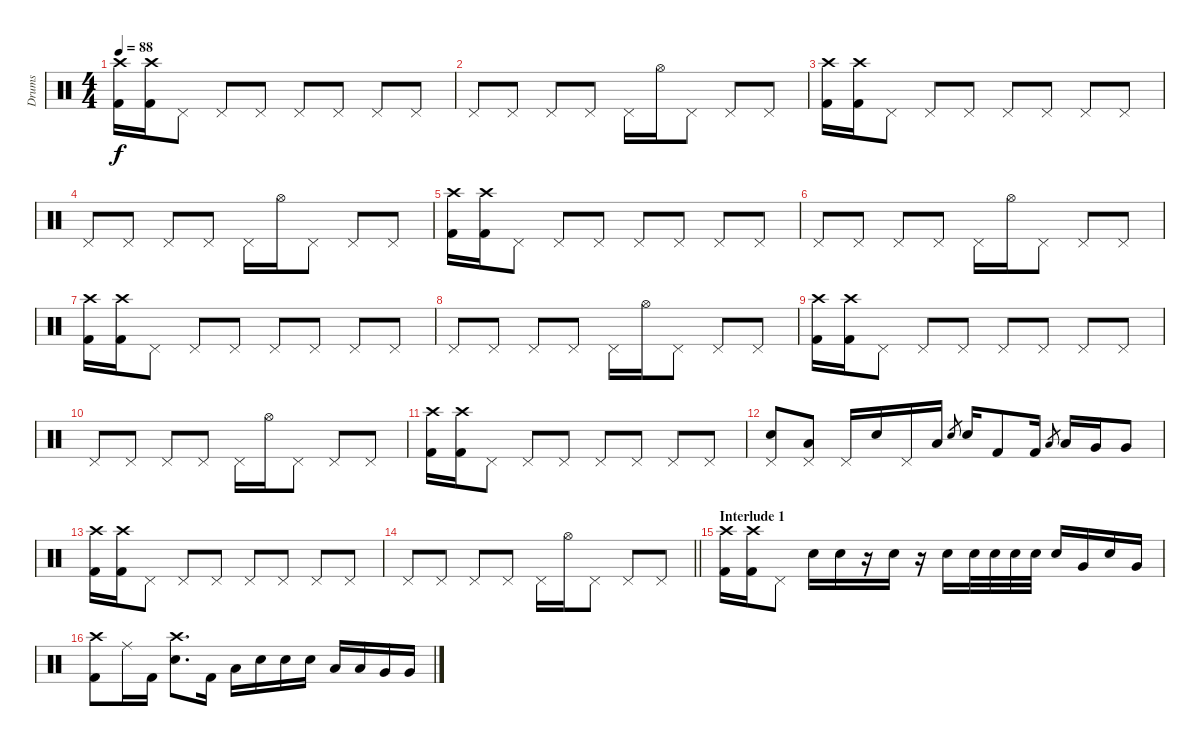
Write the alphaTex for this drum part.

\track ("Drums" "Drums") {instrument percussion}
\staff {score}
\articulation defaults
\ts (4 4)
\tempo 88
\clef neutral
\ks c
("Crash high (hit)" "Kick (hit) 2").16{dy f} ("Crash high (hit)" "Kick (hit) 2").16 "Pedal Hi-Hat (hit)".8 "Pedal Hi-Hat (hit)".8 "Pedal Hi-Hat (hit)".8 "Pedal Hi-Hat (hit)".8 "Pedal Hi-Hat (hit)".8 "Pedal Hi-Hat (hit)".8 "Pedal Hi-Hat (hit)".8 |
"Pedal Hi-Hat (hit)".8 "Pedal Hi-Hat (hit)".8 "Pedal Hi-Hat (hit)".8 "Pedal Hi-Hat (hit)".8 "Pedal Hi-Hat (hit)".16 "Hi-Hat (open)".16 "Pedal Hi-Hat (hit)".8 "Pedal Hi-Hat (hit)".8 "Pedal Hi-Hat (hit)".8 |
("Crash high (hit)" "Kick (hit) 2").16 ("Crash high (hit)" "Kick (hit) 2").16 "Pedal Hi-Hat (hit)".8 "Pedal Hi-Hat (hit)".8 "Pedal Hi-Hat (hit)".8 "Pedal Hi-Hat (hit)".8 "Pedal Hi-Hat (hit)".8 "Pedal Hi-Hat (hit)".8 "Pedal Hi-Hat (hit)".8 |
"Pedal Hi-Hat (hit)".8 "Pedal Hi-Hat (hit)".8 "Pedal Hi-Hat (hit)".8 "Pedal Hi-Hat (hit)".8 "Pedal Hi-Hat (hit)".16 "Hi-Hat (open)".16 "Pedal Hi-Hat (hit)".8 "Pedal Hi-Hat (hit)".8 "Pedal Hi-Hat (hit)".8 |
("Crash high (hit)" "Kick (hit) 2").16 ("Crash high (hit)" "Kick (hit) 2").16 "Pedal Hi-Hat (hit)".8 "Pedal Hi-Hat (hit)".8 "Pedal Hi-Hat (hit)".8 "Pedal Hi-Hat (hit)".8 "Pedal Hi-Hat (hit)".8 "Pedal Hi-Hat (hit)".8 "Pedal Hi-Hat (hit)".8 |
"Pedal Hi-Hat (hit)".8 "Pedal Hi-Hat (hit)".8 "Pedal Hi-Hat (hit)".8 "Pedal Hi-Hat (hit)".8 "Pedal Hi-Hat (hit)".16 "Hi-Hat (open)".16 "Pedal Hi-Hat (hit)".8 "Pedal Hi-Hat (hit)".8 "Pedal Hi-Hat (hit)".8 |
("Crash high (hit)" "Kick (hit) 2").16 ("Crash high (hit)" "Kick (hit) 2").16 "Pedal Hi-Hat (hit)".8 "Pedal Hi-Hat (hit)".8 "Pedal Hi-Hat (hit)".8 "Pedal Hi-Hat (hit)".8 "Pedal Hi-Hat (hit)".8 "Pedal Hi-Hat (hit)".8 "Pedal Hi-Hat (hit)".8 |
"Pedal Hi-Hat (hit)".8 "Pedal Hi-Hat (hit)".8 "Pedal Hi-Hat (hit)".8 "Pedal Hi-Hat (hit)".8 "Pedal Hi-Hat (hit)".16 "Hi-Hat (open)".16 "Pedal Hi-Hat (hit)".8 "Pedal Hi-Hat (hit)".8 "Pedal Hi-Hat (hit)".8 |
("Crash high (hit)" "Kick (hit) 2").16 ("Crash high (hit)" "Kick (hit) 2").16 "Pedal Hi-Hat (hit)".8 "Pedal Hi-Hat (hit)".8 "Pedal Hi-Hat (hit)".8 "Pedal Hi-Hat (hit)".8 "Pedal Hi-Hat (hit)".8 "Pedal Hi-Hat (hit)".8 "Pedal Hi-Hat (hit)".8 |
"Pedal Hi-Hat (hit)".8 "Pedal Hi-Hat (hit)".8 "Pedal Hi-Hat (hit)".8 "Pedal Hi-Hat (hit)".8 "Pedal Hi-Hat (hit)".16 "Hi-Hat (open)".16 "Pedal Hi-Hat (hit)".8 "Pedal Hi-Hat (hit)".8 "Pedal Hi-Hat (hit)".8 |
("Crash high (hit)" "Kick (hit) 2").16 ("Crash high (hit)" "Kick (hit) 2").16 "Pedal Hi-Hat (hit)".8 "Pedal Hi-Hat (hit)".8 "Pedal Hi-Hat (hit)".8 "Pedal Hi-Hat (hit)".8 "Pedal Hi-Hat (hit)".8 "Pedal Hi-Hat (hit)".8 "Pedal Hi-Hat (hit)".8 |
("Pedal Hi-Hat (hit)" "Snare (hit) 2").8 ("Pedal Hi-Hat (hit)" "Low Tom (hit)").8 "Pedal Hi-Hat (hit)".16 "Snare (hit) 2".16 "Pedal Hi-Hat (hit)".16 "Low Tom (hit)".16 "Snare (hit) 2".8{gr} "Snare (hit) 2".16 "Kick (hit) 2".8 "Kick (hit) 2".16 "Low Tom (hit)".8{gr} "Low Tom (hit)".16 "Very Low Tom (hit)".16 "Very Low Tom (hit)".8 |
("Crash high (hit)" "Kick (hit) 2").16 ("Crash high (hit)" "Kick (hit) 2").16 "Pedal Hi-Hat (hit)".8 "Pedal Hi-Hat (hit)".8 "Pedal Hi-Hat (hit)".8 "Pedal Hi-Hat (hit)".8 "Pedal Hi-Hat (hit)".8 "Pedal Hi-Hat (hit)".8 "Pedal Hi-Hat (hit)".8 |
\barLineRight lightlight "Pedal Hi-Hat (hit)".8 "Pedal Hi-Hat (hit)".8 "Pedal Hi-Hat (hit)".8 "Pedal Hi-Hat (hit)".8 "Pedal Hi-Hat (hit)".16 "Hi-Hat (open)".16 "Pedal Hi-Hat (hit)".8 "Pedal Hi-Hat (hit)".8 "Pedal Hi-Hat (hit)".8
|
\section ("" "Interlude 1")
("Crash high (hit)" "Kick (hit) 2").16 ("Crash high (hit)" "Kick (hit) 2").16 "Pedal Hi-Hat (hit)".8 "Snare (hit) 2".16 "Snare (hit) 2".16 r.16 "Snare (hit) 2".16 r.16 "Snare (hit) 2".16 "Snare (hit) 2".32 "Snare (hit) 2".32 "Snare (hit) 2".32 "Snare (hit) 2".32 "Snare (hit) 2".16 "Very Low Tom (hit)".16 "Snare (hit) 2".16 "Very Low Tom (hit)".16 |
("Crash high (hit)" "Kick (hit) 2").8 "Ride (middle)".16 "Kick (hit) 2".16 ("Crash high (hit)" "Snare (hit) 2").8{d} "Kick (hit) 2".16 "Low Tom (hit)".16 "Snare (hit) 2".16 "Snare (hit) 2".16 "Snare (hit) 2".16 "Low Tom (hit)".16 "Low Tom (hit)".16 "Very Low Tom (hit)".16 "Very Low Tom (hit)".16
